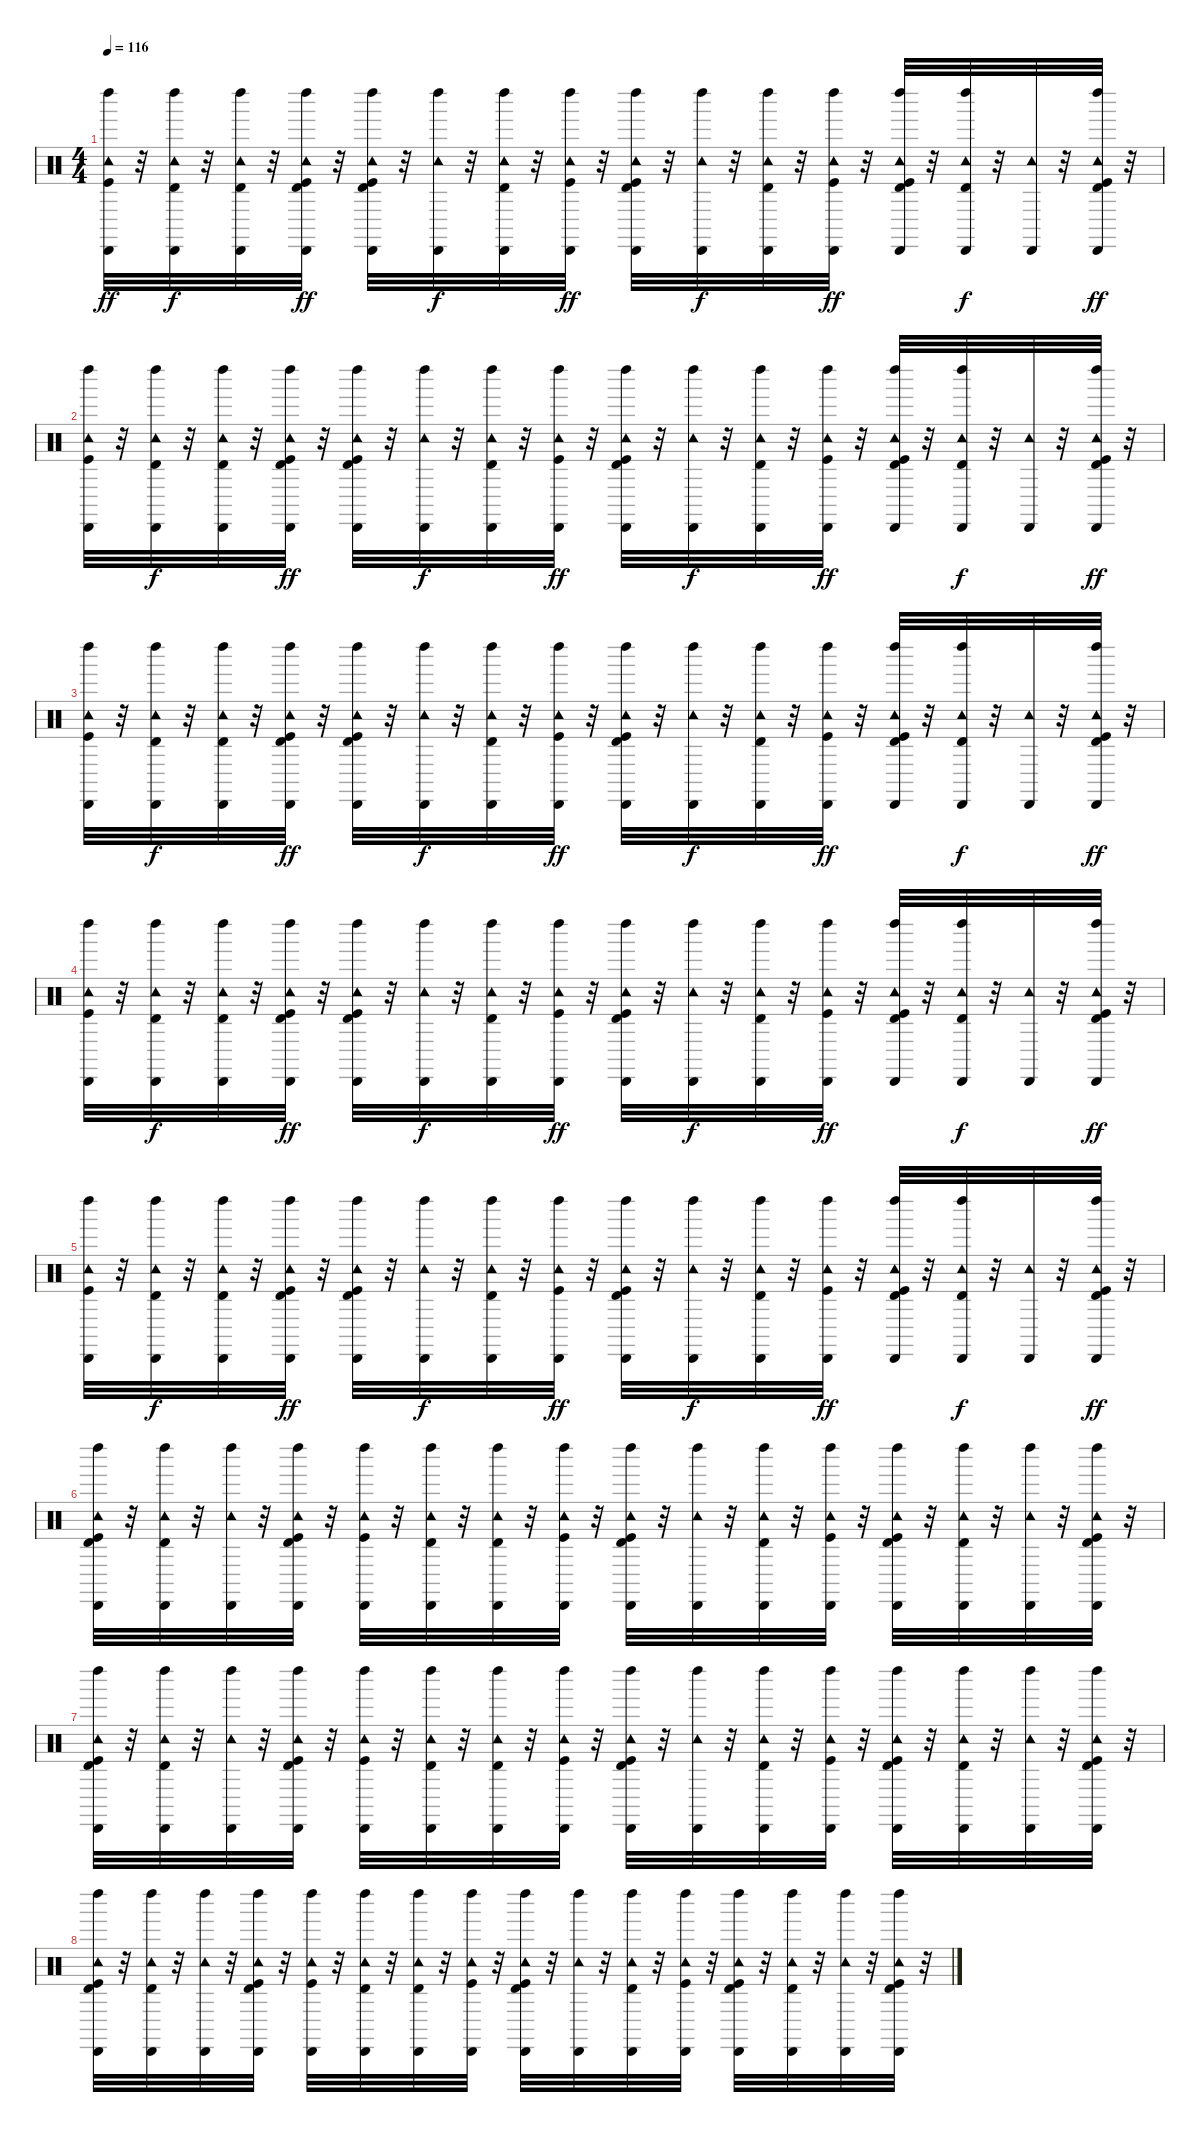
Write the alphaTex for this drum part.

\track "" {instrument percussion}
\staff {score}
\articulation defaults
\ts (4 4)
\tempo 116
\clef neutral
\ks c
("Kick (hit)" "Tambourine (hit)" "Cabasa (hit)" "Left Maraca (hit)").32{dy ff} r.32 ("Tambourine (hit)" "Timbale high (hit)" "Cabasa (hit)" "Left Maraca (hit)").32{dy f} r.32 ("Tambourine (hit)" "Timbale high (hit)" "Cabasa (hit)" "Left Maraca (hit)").32 r.32 ("Kick (hit)" "Tambourine (hit)" "Timbale high (hit)" "Cabasa (hit)" "Left Maraca (hit)").32{dy ff} r.32 ("Kick (hit)" "Tambourine (hit)" "Timbale high (hit)" "Cabasa (hit)" "Left Maraca (hit)").32 r.32 ("Tambourine (hit)" "Cabasa (hit)" "Left Maraca (hit)").32{dy f} r.32 ("Tambourine (hit)" "Timbale high (hit)" "Cabasa (hit)" "Left Maraca (hit)").32 r.32 ("Kick (hit)" "Tambourine (hit)" "Cabasa (hit)" "Left Maraca (hit)").32{dy ff} r.32 ("Kick (hit)" "Tambourine (hit)" "Timbale high (hit)" "Cabasa (hit)" "Left Maraca (hit)").32 r.32 ("Tambourine (hit)" "Cabasa (hit)" "Left Maraca (hit)").32{dy f} r.32 ("Tambourine (hit)" "Timbale high (hit)" "Cabasa (hit)" "Left Maraca (hit)").32 r.32 ("Kick (hit)" "Tambourine (hit)" "Cabasa (hit)" "Left Maraca (hit)").32{dy ff} r.32 ("Kick (hit)" "Tambourine (hit)" "Timbale high (hit)" "Cabasa (hit)" "Left Maraca (hit)").32 r.32 ("Tambourine (hit)" "Timbale high (hit)" "Cabasa (hit)" "Left Maraca (hit)").32{dy f} r.32 ("Tambourine (hit)" "Cabasa (hit)").32 r.32 ("Kick (hit)" "Tambourine (hit)" "Timbale high (hit)" "Cabasa (hit)" "Left Maraca (hit)").32{dy ff} r.32 |
("Kick (hit)" "Tambourine (hit)" "Cabasa (hit)" "Left Maraca (hit)").32 r.32 ("Tambourine (hit)" "Timbale high (hit)" "Cabasa (hit)" "Left Maraca (hit)").32{dy f} r.32 ("Tambourine (hit)" "Timbale high (hit)" "Cabasa (hit)" "Left Maraca (hit)").32 r.32 ("Kick (hit)" "Tambourine (hit)" "Timbale high (hit)" "Cabasa (hit)" "Left Maraca (hit)").32{dy ff} r.32 ("Kick (hit)" "Tambourine (hit)" "Timbale high (hit)" "Cabasa (hit)" "Left Maraca (hit)").32 r.32 ("Tambourine (hit)" "Cabasa (hit)" "Left Maraca (hit)").32{dy f} r.32 ("Tambourine (hit)" "Timbale high (hit)" "Cabasa (hit)" "Left Maraca (hit)").32 r.32 ("Kick (hit)" "Tambourine (hit)" "Cabasa (hit)" "Left Maraca (hit)").32{dy ff} r.32 ("Kick (hit)" "Tambourine (hit)" "Timbale high (hit)" "Cabasa (hit)" "Left Maraca (hit)").32 r.32 ("Tambourine (hit)" "Cabasa (hit)" "Left Maraca (hit)").32{dy f} r.32 ("Tambourine (hit)" "Timbale high (hit)" "Cabasa (hit)" "Left Maraca (hit)").32 r.32 ("Kick (hit)" "Tambourine (hit)" "Cabasa (hit)" "Left Maraca (hit)").32{dy ff} r.32 ("Kick (hit)" "Tambourine (hit)" "Timbale high (hit)" "Cabasa (hit)" "Left Maraca (hit)").32 r.32 ("Tambourine (hit)" "Timbale high (hit)" "Cabasa (hit)" "Left Maraca (hit)").32{dy f} r.32 ("Tambourine (hit)" "Cabasa (hit)").32 r.32 ("Kick (hit)" "Tambourine (hit)" "Timbale high (hit)" "Cabasa (hit)" "Left Maraca (hit)").32{dy ff} r.32 |
("Kick (hit)" "Tambourine (hit)" "Cabasa (hit)" "Left Maraca (hit)").32 r.32 ("Tambourine (hit)" "Timbale high (hit)" "Cabasa (hit)" "Left Maraca (hit)").32{dy f} r.32 ("Tambourine (hit)" "Timbale high (hit)" "Cabasa (hit)" "Left Maraca (hit)").32 r.32 ("Kick (hit)" "Tambourine (hit)" "Timbale high (hit)" "Cabasa (hit)" "Left Maraca (hit)").32{dy ff} r.32 ("Kick (hit)" "Tambourine (hit)" "Timbale high (hit)" "Cabasa (hit)" "Left Maraca (hit)").32 r.32 ("Tambourine (hit)" "Cabasa (hit)" "Left Maraca (hit)").32{dy f} r.32 ("Tambourine (hit)" "Timbale high (hit)" "Cabasa (hit)" "Left Maraca (hit)").32 r.32 ("Kick (hit)" "Tambourine (hit)" "Cabasa (hit)" "Left Maraca (hit)").32{dy ff} r.32 ("Kick (hit)" "Tambourine (hit)" "Timbale high (hit)" "Cabasa (hit)" "Left Maraca (hit)").32 r.32 ("Tambourine (hit)" "Cabasa (hit)" "Left Maraca (hit)").32{dy f} r.32 ("Tambourine (hit)" "Timbale high (hit)" "Cabasa (hit)" "Left Maraca (hit)").32 r.32 ("Kick (hit)" "Tambourine (hit)" "Cabasa (hit)" "Left Maraca (hit)").32{dy ff} r.32 ("Kick (hit)" "Tambourine (hit)" "Timbale high (hit)" "Cabasa (hit)" "Left Maraca (hit)").32 r.32 ("Tambourine (hit)" "Timbale high (hit)" "Cabasa (hit)" "Left Maraca (hit)").32{dy f} r.32 ("Tambourine (hit)" "Cabasa (hit)").32 r.32 ("Kick (hit)" "Tambourine (hit)" "Timbale high (hit)" "Cabasa (hit)" "Left Maraca (hit)").32{dy ff} r.32 |
("Kick (hit)" "Tambourine (hit)" "Cabasa (hit)" "Left Maraca (hit)").32 r.32 ("Tambourine (hit)" "Timbale high (hit)" "Cabasa (hit)" "Left Maraca (hit)").32{dy f} r.32 ("Tambourine (hit)" "Timbale high (hit)" "Cabasa (hit)" "Left Maraca (hit)").32 r.32 ("Kick (hit)" "Tambourine (hit)" "Timbale high (hit)" "Cabasa (hit)" "Left Maraca (hit)").32{dy ff} r.32 ("Kick (hit)" "Tambourine (hit)" "Timbale high (hit)" "Cabasa (hit)" "Left Maraca (hit)").32 r.32 ("Tambourine (hit)" "Cabasa (hit)" "Left Maraca (hit)").32{dy f} r.32 ("Tambourine (hit)" "Timbale high (hit)" "Cabasa (hit)" "Left Maraca (hit)").32 r.32 ("Kick (hit)" "Tambourine (hit)" "Cabasa (hit)" "Left Maraca (hit)").32{dy ff} r.32 ("Kick (hit)" "Tambourine (hit)" "Timbale high (hit)" "Cabasa (hit)" "Left Maraca (hit)").32 r.32 ("Tambourine (hit)" "Cabasa (hit)" "Left Maraca (hit)").32{dy f} r.32 ("Tambourine (hit)" "Timbale high (hit)" "Cabasa (hit)" "Left Maraca (hit)").32 r.32 ("Kick (hit)" "Tambourine (hit)" "Cabasa (hit)" "Left Maraca (hit)").32{dy ff} r.32 ("Kick (hit)" "Tambourine (hit)" "Timbale high (hit)" "Cabasa (hit)" "Left Maraca (hit)").32 r.32 ("Tambourine (hit)" "Timbale high (hit)" "Cabasa (hit)" "Left Maraca (hit)").32{dy f} r.32 ("Tambourine (hit)" "Cabasa (hit)").32 r.32 ("Kick (hit)" "Tambourine (hit)" "Timbale high (hit)" "Cabasa (hit)" "Left Maraca (hit)").32{dy ff} r.32 |
("Kick (hit)" "Tambourine (hit)" "Cabasa (hit)" "Left Maraca (hit)").32 r.32 ("Tambourine (hit)" "Timbale high (hit)" "Cabasa (hit)" "Left Maraca (hit)").32{dy f} r.32 ("Tambourine (hit)" "Timbale high (hit)" "Cabasa (hit)" "Left Maraca (hit)").32 r.32 ("Kick (hit)" "Tambourine (hit)" "Timbale high (hit)" "Cabasa (hit)" "Left Maraca (hit)").32{dy ff} r.32 ("Kick (hit)" "Tambourine (hit)" "Timbale high (hit)" "Cabasa (hit)" "Left Maraca (hit)").32 r.32 ("Tambourine (hit)" "Cabasa (hit)" "Left Maraca (hit)").32{dy f} r.32 ("Tambourine (hit)" "Timbale high (hit)" "Cabasa (hit)" "Left Maraca (hit)").32 r.32 ("Kick (hit)" "Tambourine (hit)" "Cabasa (hit)" "Left Maraca (hit)").32{dy ff} r.32 ("Kick (hit)" "Tambourine (hit)" "Timbale high (hit)" "Cabasa (hit)" "Left Maraca (hit)").32 r.32 ("Tambourine (hit)" "Cabasa (hit)" "Left Maraca (hit)").32{dy f} r.32 ("Tambourine (hit)" "Timbale high (hit)" "Cabasa (hit)" "Left Maraca (hit)").32 r.32 ("Kick (hit)" "Tambourine (hit)" "Cabasa (hit)" "Left Maraca (hit)").32{dy ff} r.32 ("Kick (hit)" "Tambourine (hit)" "Timbale high (hit)" "Cabasa (hit)" "Left Maraca (hit)").32 r.32 ("Tambourine (hit)" "Timbale high (hit)" "Cabasa (hit)" "Left Maraca (hit)").32{dy f} r.32 ("Tambourine (hit)" "Cabasa (hit)").32 r.32 ("Kick (hit)" "Tambourine (hit)" "Timbale high (hit)" "Cabasa (hit)" "Left Maraca (hit)").32{dy ff} r.32 |
("Kick (hit)" "Tambourine (hit)" "Timbale high (hit)" "Cabasa (hit)" "Left Maraca (hit)").32 r.32 ("Tambourine (hit)" "Timbale high (hit)" "Cabasa (hit)" "Left Maraca (hit)").32 r.32 ("Tambourine (hit)" "Cabasa (hit)" "Left Maraca (hit)").32 r.32 ("Kick (hit)" "Tambourine (hit)" "Timbale high (hit)" "Cabasa (hit)" "Left Maraca (hit)").32 r.32 ("Kick (hit)" "Tambourine (hit)" "Cabasa (hit)" "Left Maraca (hit)").32 r.32 ("Tambourine (hit)" "Timbale high (hit)" "Cabasa (hit)" "Left Maraca (hit)").32 r.32 ("Tambourine (hit)" "Timbale high (hit)" "Cabasa (hit)" "Left Maraca (hit)").32 r.32 ("Kick (hit)" "Tambourine (hit)" "Cabasa (hit)" "Left Maraca (hit)").32 r.32 ("Kick (hit)" "Tambourine (hit)" "Timbale high (hit)" "Cabasa (hit)" "Left Maraca (hit)").32 r.32 ("Tambourine (hit)" "Cabasa (hit)" "Left Maraca (hit)").32 r.32 ("Tambourine (hit)" "Timbale high (hit)" "Cabasa (hit)" "Left Maraca (hit)").32 r.32 ("Kick (hit)" "Tambourine (hit)" "Cabasa (hit)" "Left Maraca (hit)").32 r.32 ("Kick (hit)" "Tambourine (hit)" "Timbale high (hit)" "Cabasa (hit)" "Left Maraca (hit)").32 r.32 ("Tambourine (hit)" "Timbale high (hit)" "Cabasa (hit)" "Left Maraca (hit)").32 r.32 ("Tambourine (hit)" "Cabasa (hit)" "Left Maraca (hit)").32 r.32 ("Kick (hit)" "Tambourine (hit)" "Timbale high (hit)" "Cabasa (hit)" "Left Maraca (hit)").32 r.32 |
("Kick (hit)" "Tambourine (hit)" "Timbale high (hit)" "Cabasa (hit)" "Left Maraca (hit)").32 r.32 ("Tambourine (hit)" "Timbale high (hit)" "Cabasa (hit)" "Left Maraca (hit)").32 r.32 ("Tambourine (hit)" "Cabasa (hit)" "Left Maraca (hit)").32 r.32 ("Kick (hit)" "Tambourine (hit)" "Timbale high (hit)" "Cabasa (hit)" "Left Maraca (hit)").32 r.32 ("Kick (hit)" "Tambourine (hit)" "Cabasa (hit)" "Left Maraca (hit)").32 r.32 ("Tambourine (hit)" "Timbale high (hit)" "Cabasa (hit)" "Left Maraca (hit)").32 r.32 ("Tambourine (hit)" "Timbale high (hit)" "Cabasa (hit)" "Left Maraca (hit)").32 r.32 ("Kick (hit)" "Tambourine (hit)" "Cabasa (hit)" "Left Maraca (hit)").32 r.32 ("Kick (hit)" "Tambourine (hit)" "Timbale high (hit)" "Cabasa (hit)" "Left Maraca (hit)").32 r.32 ("Tambourine (hit)" "Cabasa (hit)" "Left Maraca (hit)").32 r.32 ("Tambourine (hit)" "Timbale high (hit)" "Cabasa (hit)" "Left Maraca (hit)").32 r.32 ("Kick (hit)" "Tambourine (hit)" "Cabasa (hit)" "Left Maraca (hit)").32 r.32 ("Kick (hit)" "Tambourine (hit)" "Timbale high (hit)" "Cabasa (hit)" "Left Maraca (hit)").32 r.32 ("Tambourine (hit)" "Timbale high (hit)" "Cabasa (hit)" "Left Maraca (hit)").32 r.32 ("Tambourine (hit)" "Cabasa (hit)" "Left Maraca (hit)").32 r.32 ("Kick (hit)" "Tambourine (hit)" "Timbale high (hit)" "Cabasa (hit)" "Left Maraca (hit)").32 r.32 |
("Kick (hit)" "Tambourine (hit)" "Timbale high (hit)" "Cabasa (hit)" "Left Maraca (hit)").32 r.32 ("Tambourine (hit)" "Timbale high (hit)" "Cabasa (hit)" "Left Maraca (hit)").32 r.32 ("Tambourine (hit)" "Cabasa (hit)" "Left Maraca (hit)").32 r.32 ("Kick (hit)" "Tambourine (hit)" "Timbale high (hit)" "Cabasa (hit)" "Left Maraca (hit)").32 r.32 ("Kick (hit)" "Tambourine (hit)" "Cabasa (hit)" "Left Maraca (hit)").32 r.32 ("Tambourine (hit)" "Timbale high (hit)" "Cabasa (hit)" "Left Maraca (hit)").32 r.32 ("Tambourine (hit)" "Timbale high (hit)" "Cabasa (hit)" "Left Maraca (hit)").32 r.32 ("Kick (hit)" "Tambourine (hit)" "Cabasa (hit)" "Left Maraca (hit)").32 r.32 ("Kick (hit)" "Tambourine (hit)" "Timbale high (hit)" "Cabasa (hit)" "Left Maraca (hit)").32 r.32 ("Tambourine (hit)" "Cabasa (hit)" "Left Maraca (hit)").32 r.32 ("Tambourine (hit)" "Timbale high (hit)" "Cabasa (hit)" "Left Maraca (hit)").32 r.32 ("Kick (hit)" "Tambourine (hit)" "Cabasa (hit)" "Left Maraca (hit)").32 r.32 ("Kick (hit)" "Tambourine (hit)" "Timbale high (hit)" "Cabasa (hit)" "Left Maraca (hit)").32 r.32 ("Tambourine (hit)" "Timbale high (hit)" "Cabasa (hit)" "Left Maraca (hit)").32 r.32 ("Tambourine (hit)" "Cabasa (hit)" "Left Maraca (hit)").32 r.32 ("Kick (hit)" "Tambourine (hit)" "Timbale high (hit)" "Cabasa (hit)" "Left Maraca (hit)").32 r.32
